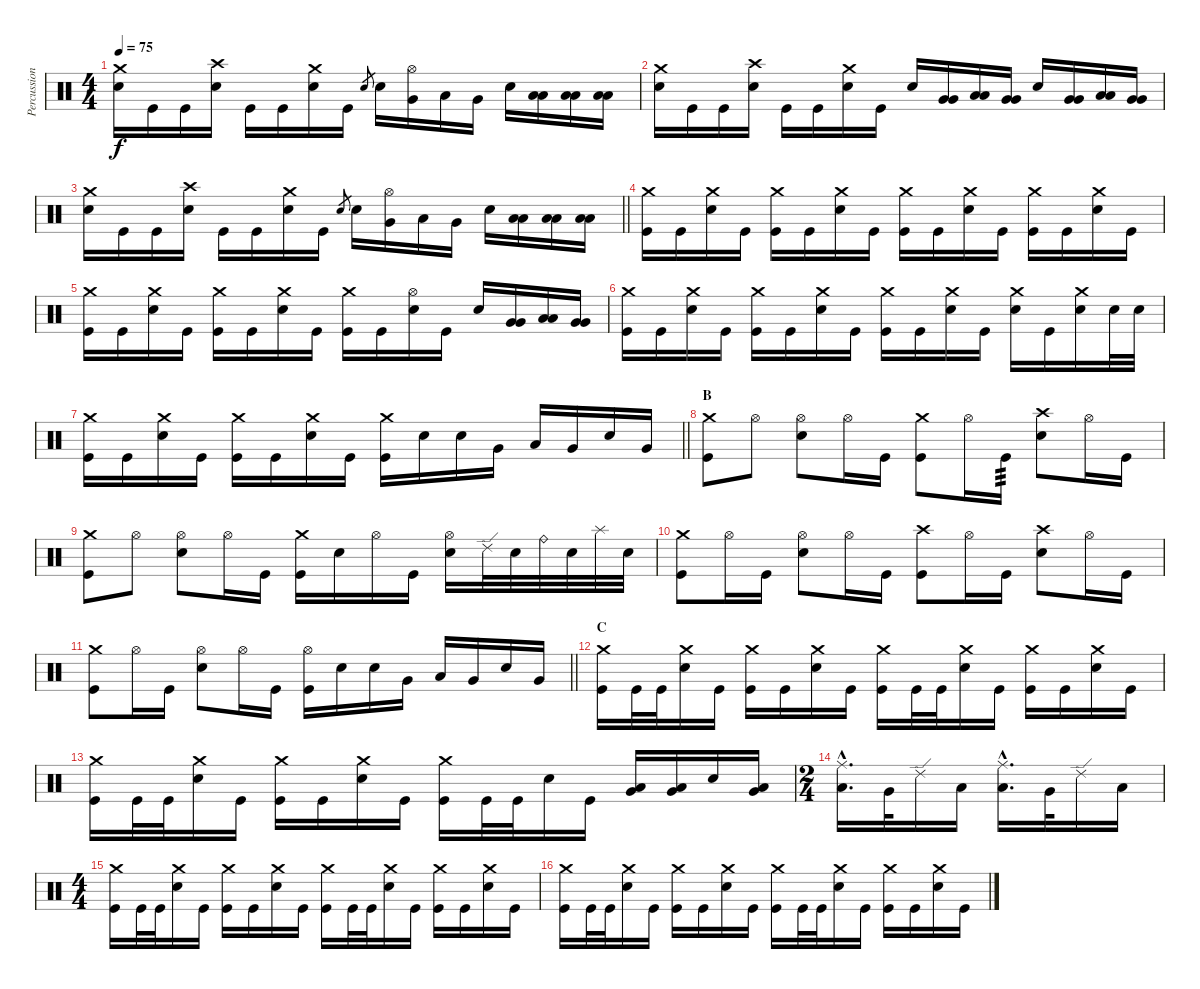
\track ("Percussion" "Percussion") {instrument percussion}
\staff {score}
\articulation defaults
\ts (4 4)
\tempo 75
\clef neutral
\ks c
("Snare (hit) 2" "Crash medium (hit)").16{dy f} "Kick (hit)".16 "Kick (hit)".16 ("Snare (hit) 2" "Crash high (hit)").16 "Kick (hit)".16 "Kick (hit)".16 ("Snare (hit) 2" "Crash medium (hit)").16 "Kick (hit)".16 "Snare (hit) 2".8{gr} "Snare (hit) 2".16 ("Very Low Tom (hit)" "Hi-Hat (open)").16 "Low Floor Tom (hit)".16 "Very Low Tom (hit)".16 "Snare (hit) 2".16 ("Low Floor Tom (hit)" "Low Floor Tom (hit)").16 ("Low Floor Tom (hit)" "Low Floor Tom (hit)").16 ("Low Floor Tom (hit)" "Low Floor Tom (hit)").16 |
("Snare (hit) 2" "Crash medium (hit)").16 "Kick (hit)".16 "Kick (hit)".16 ("Snare (hit) 2" "Crash high (hit)").16 "Kick (hit)".16 "Kick (hit)".16 ("Snare (hit) 2" "Crash medium (hit)").16 "Kick (hit)".16 "Snare (hit) 2".16 ("Very Low Tom (hit)" "Very Low Tom (hit)").16 ("Low Floor Tom (hit)" "Low Floor Tom (hit)").16 ("Very Low Tom (hit)" "Very Low Tom (hit)").16 "Snare (hit) 2".16 ("Very Low Tom (hit)" "Very Low Tom (hit)").16 ("Low Floor Tom (hit)" "Low Floor Tom (hit)").16 ("Very Low Tom (hit)" "Very Low Tom (hit)").16 |
\barLineRight lightlight
("Snare (hit) 2" "Crash medium (hit)").16 "Kick (hit)".16 "Kick (hit)".16 ("Snare (hit) 2" "Crash high (hit)").16 "Kick (hit)".16 "Kick (hit)".16 ("Snare (hit) 2" "Crash medium (hit)").16 "Kick (hit)".16 "Snare (hit) 2".8{gr} "Snare (hit) 2".16 ("Very Low Tom (hit)" "Hi-Hat (open)").16 "Low Floor Tom (hit)".16 "Very Low Tom (hit)".16 "Snare (hit) 2".16 ("Low Floor Tom (hit)" "Low Floor Tom (hit)").16 ("Low Floor Tom (hit)" "Low Floor Tom (hit)").16 ("Low Floor Tom (hit)" "Low Floor Tom (hit)").16 |
("Kick (hit)" "Crash medium (hit)").16 "Kick (hit)".16 ("Snare (hit) 2" "Crash medium (hit)").16 "Kick (hit)".16 ("Kick (hit)" "Crash medium (hit)").16 "Kick (hit)".16 ("Snare (hit) 2" "Crash medium (hit)").16 "Kick (hit)".16 ("Kick (hit)" "Crash medium (hit)").16 "Kick (hit)".16 ("Snare (hit) 2" "Crash medium (hit)").16 "Kick (hit)".16 ("Kick (hit)" "Crash medium (hit)").16 "Kick (hit)".16 ("Snare (hit) 2" "Crash medium (hit)").16 "Kick (hit)".16 |
("Kick (hit)" "Crash medium (hit)").16 "Kick (hit)".16 ("Snare (hit) 2" "Crash medium (hit)").16 "Kick (hit)".16 ("Kick (hit)" "Crash medium (hit)").16 "Kick (hit)".16 ("Snare (hit) 2" "Crash medium (hit)").16 "Kick (hit)".16 ("Kick (hit)" "Crash medium (hit)").16 "Kick (hit)".16 ("Snare (hit) 2" "Hi-Hat (open)").16 "Kick (hit)".16 "Snare (hit) 2".16 ("Very Low Tom (hit)" "Very Low Tom (hit)").16 ("Low Floor Tom (hit)" "Low Floor Tom (hit)").16 ("Very Low Tom (hit)" "Very Low Tom (hit)").16 |
("Kick (hit)" "Crash medium (hit)").16 "Kick (hit)".16 ("Snare (hit) 2" "Crash medium (hit)").16 "Kick (hit)".16 ("Kick (hit)" "Crash medium (hit)").16 "Kick (hit)".16 ("Snare (hit) 2" "Crash medium (hit)").16 "Kick (hit)".16 ("Kick (hit)" "Crash medium (hit)").16 "Kick (hit)".16 ("Snare (hit) 2" "Crash medium (hit)").16 "Kick (hit)".16 ("Snare (hit) 2" "Crash medium (hit)").16 "Kick (hit)".16 ("Snare (hit) 2" "Crash medium (hit)").16 "Snare (hit) 2".32 "Snare (hit) 2".32 |
\barLineRight lightlight
("Kick (hit)" "Crash medium (hit)").16 "Kick (hit)".16 ("Snare (hit) 2" "Crash medium (hit)").16 "Kick (hit)".16 ("Kick (hit)" "Crash medium (hit)").16 "Kick (hit)".16 ("Snare (hit) 2" "Crash medium (hit)").16 "Kick (hit)".16 ("Kick (hit)" "Crash medium (hit)").16 "Snare (hit) 2".16 "Snare (hit) 2".16 "Very Low Tom (hit)".16 "Low Floor Tom (hit)".16 "Very Low Tom (hit)".16 "Snare (hit) 2".16 "Very Low Tom (hit)".16 |
\section ("" "B")
("Kick (hit)" "Crash medium (hit)").8 "Hi-Hat (open)".8 ("Snare (hit) 2" "Hi-Hat (open)").8 "Hi-Hat (open)".16 "Kick (hit)".16 ("Kick (hit)" "Crash medium (hit)").8 "Hi-Hat (open)".16 "Kick (hit)".16{tp 3} ("Snare (hit) 2" "Crash high (hit)").8 "Hi-Hat (open)".16 "Kick (hit)".16 |
("Kick (hit)" "Crash medium (hit)").8 "Hi-Hat (open)".8 ("Snare (hit) 2" "Hi-Hat (open)").8 "Hi-Hat (open)".16 "Kick (hit)".16 ("Kick (hit)" "Crash medium (hit)").16 "Snare (hit) 2".16 "Hi-Hat (open)".16 "Kick (hit)".16 ("Snare (hit) 2" "Hi-Hat (open)").16 "Ride (edge) 2".32 "Snare (hit) 2".32 "Ride (bell)".32 "Snare (hit) 2".32 "Splash (hit)".32 "Snare (hit) 2".32 |
("Kick (hit)" "Crash medium (hit)").8 "Hi-Hat (open)".16 "Kick (hit)".16 ("Snare (hit) 2" "Hi-Hat (open)").8 "Hi-Hat (open)".16 "Kick (hit)".16 ("Kick (hit)" "Crash high (hit)").8 "Hi-Hat (open)".16 "Kick (hit)".16 ("Snare (hit) 2" "Crash high (hit)").8 "Hi-Hat (open)".16 "Kick (hit)".16 |
\barLineRight lightlight
("Kick (hit)" "Crash medium (hit)").8 "Hi-Hat (open)".16 "Kick (hit)".16 ("Snare (hit) 2" "Hi-Hat (open)").8 "Hi-Hat (open)".16 "Kick (hit)".16 ("Kick (hit)" "Hi-Hat (open)").16 "Snare (hit) 2".16 "Snare (hit) 2".16 "Very Low Tom (hit)".16 "Low Floor Tom (hit)".16 "Very Low Tom (hit)".16 "Snare (hit) 2".16 "Very Low Tom (hit)".16 |
\section ("" "C")
("Kick (hit)" "Crash medium (hit)").16 "Kick (hit)".32 "Kick (hit)".32 ("Snare (hit) 2" "Crash medium (hit)").16 "Kick (hit)".16 ("Kick (hit)" "Crash medium (hit)").16 "Kick (hit)".16 ("Snare (hit) 2" "Crash medium (hit)").16 "Kick (hit)".16 ("Kick (hit)" "Crash medium (hit)").16 "Kick (hit)".32 "Kick (hit)".32 ("Snare (hit) 2" "Crash medium (hit)").16 "Kick (hit)".16 ("Kick (hit)" "Crash medium (hit)").16 "Kick (hit)".16 ("Snare (hit) 2" "Crash medium (hit)").16 "Kick (hit)".16 |
("Kick (hit)" "Crash medium (hit)").16 "Kick (hit)".32 "Kick (hit)".32 ("Snare (hit) 2" "Crash medium (hit)").16 "Kick (hit)".16 ("Kick (hit)" "Crash medium (hit)").16 "Kick (hit)".16 ("Snare (hit) 2" "Crash medium (hit)").16 "Kick (hit)".16 ("Kick (hit)" "Crash medium (hit)").16 "Kick (hit)".32 "Kick (hit)".32 "Snare (hit) 2".16 "Kick (hit)".16 ("Low Floor Tom (hit)" "Very Low Tom (hit)").16 ("Very Low Tom (hit)" "Low Tom (hit)").16 "Snare (hit) 2".16 ("Very Low Tom (hit)" "Low Tom (hit)").16 |
\ts (2 4)
("Low Floor Tom (hit)"{hac} "Ride (middle)"{hac}).16{d} "Very Low Tom (hit)".32 "Ride (edge) 2".16 "Low Floor Tom (hit)".16 ("Low Floor Tom (hit)"{hac} "Ride (middle)"{hac}).16{d} "Very Low Tom (hit)".32 "Ride (edge) 2".16 "Low Floor Tom (hit)".16 |
\ts (4 4)
("Kick (hit)" "Crash medium (hit)").16 "Kick (hit)".32 "Kick (hit)".32 ("Snare (hit) 2" "Crash medium (hit)").16 "Kick (hit)".16 ("Kick (hit)" "Crash medium (hit)").16 "Kick (hit)".16 ("Snare (hit) 2" "Crash medium (hit)").16 "Kick (hit)".16 ("Kick (hit)" "Crash medium (hit)").16 "Kick (hit)".32 "Kick (hit)".32 ("Snare (hit) 2" "Crash medium (hit)").16 "Kick (hit)".16 ("Kick (hit)" "Crash medium (hit)").16 "Kick (hit)".16 ("Snare (hit) 2" "Crash medium (hit)").16 "Kick (hit)".16 |
("Kick (hit)" "Crash medium (hit)").16 "Kick (hit)".32 "Kick (hit)".32 ("Snare (hit) 2" "Crash medium (hit)").16 "Kick (hit)".16 ("Kick (hit)" "Crash medium (hit)").16 "Kick (hit)".16 ("Snare (hit) 2" "Crash medium (hit)").16 "Kick (hit)".16 ("Kick (hit)" "Crash medium (hit)").16 "Kick (hit)".32 "Kick (hit)".32 ("Snare (hit) 2" "Crash medium (hit)").16 "Kick (hit)".16 ("Kick (hit)" "Crash medium (hit)").16 "Kick (hit)".16 ("Snare (hit) 2" "Crash medium (hit)").16 "Kick (hit)".16
